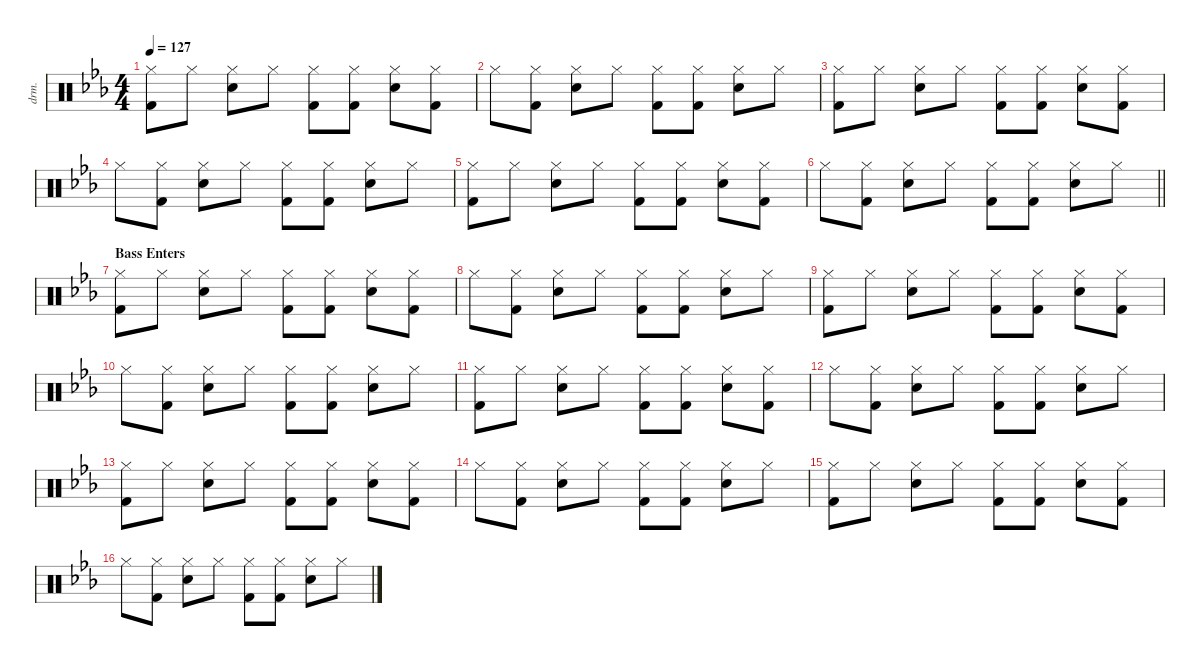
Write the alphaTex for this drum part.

\defaultSystemsLayout 4
\hideDynamics
\bracketExtendMode nobrackets
\otherSystemsTrackNameOrientation horizontal
\track ("Drums" "drm.") {defaultSystemsLayout 4 instrument percussion}
\staff {score}
\articulation defaults
\ts (4 4)
\tempo 127
\clef neutral
\ks eb
("Hi-Hat (closed)"{acc forcenatural} "Kick (hit) 2"{acc forcenatural}).8{dy f beam Down} "Hi-Hat (closed)"{acc forcenatural}.8{beam Down} ("Hi-Hat (closed)"{acc forcenatural} "Snare (hit) 2"{acc forcenatural}).8{beam Down} "Hi-Hat (closed)"{acc forcenatural}.8{beam Down} ("Hi-Hat (closed)"{acc forcenatural} "Kick (hit) 2"{acc forcenatural}).8{beam Down} ("Hi-Hat (closed)"{acc forcenatural} "Kick (hit) 2"{acc forcenatural}).8{beam Down} ("Hi-Hat (closed)"{acc forcenatural} "Snare (hit) 2"{acc forcenatural}).8{beam Down} ("Hi-Hat (closed)"{acc forcenatural} "Kick (hit) 2"{acc forcenatural}).8{beam Down} |
"Hi-Hat (closed)"{acc forcenatural}.8{beam Down} ("Hi-Hat (closed)"{acc forcenatural} "Kick (hit) 2"{acc forcenatural}).8{beam Down} ("Hi-Hat (closed)"{acc forcenatural} "Snare (hit) 2"{acc forcenatural}).8{beam Down} "Hi-Hat (closed)"{acc forcenatural}.8{beam Down} ("Hi-Hat (closed)"{acc forcenatural} "Kick (hit) 2"{acc forcenatural}).8{beam Down} ("Hi-Hat (closed)"{acc forcenatural} "Kick (hit) 2"{acc forcenatural}).8{beam Down} ("Hi-Hat (closed)"{acc forcenatural} "Snare (hit) 2"{acc forcenatural}).8{beam Down} "Hi-Hat (closed)"{acc forcenatural}.8{beam Down} |
("Hi-Hat (closed)"{acc forcenatural} "Kick (hit) 2"{acc forcenatural}).8{beam Down} "Hi-Hat (closed)"{acc forcenatural}.8{beam Down} ("Hi-Hat (closed)"{acc forcenatural} "Snare (hit) 2"{acc forcenatural}).8{beam Down} "Hi-Hat (closed)"{acc forcenatural}.8{beam Down} ("Hi-Hat (closed)"{acc forcenatural} "Kick (hit) 2"{acc forcenatural}).8{beam Down} ("Hi-Hat (closed)"{acc forcenatural} "Kick (hit) 2"{acc forcenatural}).8{beam Down} ("Hi-Hat (closed)"{acc forcenatural} "Snare (hit) 2"{acc forcenatural}).8{beam Down} ("Hi-Hat (closed)"{acc forcenatural} "Kick (hit) 2"{acc forcenatural}).8{beam Down} |
"Hi-Hat (closed)"{acc forcenatural}.8{beam Down} ("Hi-Hat (closed)"{acc forcenatural} "Kick (hit) 2"{acc forcenatural}).8{beam Down} ("Hi-Hat (closed)"{acc forcenatural} "Snare (hit) 2"{acc forcenatural}).8{beam Down} "Hi-Hat (closed)"{acc forcenatural}.8{beam Down} ("Hi-Hat (closed)"{acc forcenatural} "Kick (hit) 2"{acc forcenatural}).8{beam Down} ("Hi-Hat (closed)"{acc forcenatural} "Kick (hit) 2"{acc forcenatural}).8{beam Down} ("Hi-Hat (closed)"{acc forcenatural} "Snare (hit) 2"{acc forcenatural}).8{beam Down} "Hi-Hat (closed)"{acc forcenatural}.8{beam Down} |
("Hi-Hat (closed)"{acc forcenatural} "Kick (hit) 2"{acc forcenatural}).8{beam Down} "Hi-Hat (closed)"{acc forcenatural}.8{beam Down} ("Hi-Hat (closed)"{acc forcenatural} "Snare (hit) 2"{acc forcenatural}).8{beam Down} "Hi-Hat (closed)"{acc forcenatural}.8{beam Down} ("Hi-Hat (closed)"{acc forcenatural} "Kick (hit) 2"{acc forcenatural}).8{beam Down} ("Hi-Hat (closed)"{acc forcenatural} "Kick (hit) 2"{acc forcenatural}).8{beam Down} ("Hi-Hat (closed)"{acc forcenatural} "Snare (hit) 2"{acc forcenatural}).8{beam Down} ("Hi-Hat (closed)"{acc forcenatural} "Kick (hit) 2"{acc forcenatural}).8{beam Down} |
\barLineRight lightlight "Hi-Hat (closed)"{acc forcenatural}.8{beam Down}
("Hi-Hat (closed)"{acc forcenatural} "Kick (hit) 2"{acc forcenatural}).8{beam Down} ("Hi-Hat (closed)"{acc forcenatural} "Snare (hit) 2"{acc forcenatural}).8{beam Down} "Hi-Hat (closed)"{acc forcenatural}.8{beam Down} ("Hi-Hat (closed)"{acc forcenatural} "Kick (hit) 2"{acc forcenatural}).8{beam Down} ("Hi-Hat (closed)"{acc forcenatural} "Kick (hit) 2"{acc forcenatural}).8{beam Down} ("Hi-Hat (closed)"{acc forcenatural} "Snare (hit) 2"{acc forcenatural}).8{beam Down} "Hi-Hat (closed)"{acc forcenatural}.8{beam Down} |
\section ("" "Bass Enters")
("Hi-Hat (closed)"{acc forcenatural} "Kick (hit) 2"{acc forcenatural}).8{beam Down} "Hi-Hat (closed)"{acc forcenatural}.8{beam Down} ("Hi-Hat (closed)"{acc forcenatural} "Snare (hit) 2"{acc forcenatural}).8{beam Down} "Hi-Hat (closed)"{acc forcenatural}.8{beam Down} ("Hi-Hat (closed)"{acc forcenatural} "Kick (hit) 2"{acc forcenatural}).8{beam Down} ("Hi-Hat (closed)"{acc forcenatural} "Kick (hit) 2"{acc forcenatural}).8{beam Down} ("Hi-Hat (closed)"{acc forcenatural} "Snare (hit) 2"{acc forcenatural}).8{beam Down} ("Hi-Hat (closed)"{acc forcenatural} "Kick (hit) 2"{acc forcenatural}).8{beam Down} |
"Hi-Hat (closed)"{acc forcenatural}.8{beam Down} ("Hi-Hat (closed)"{acc forcenatural} "Kick (hit) 2"{acc forcenatural}).8{beam Down} ("Hi-Hat (closed)"{acc forcenatural} "Snare (hit) 2"{acc forcenatural}).8{beam Down} "Hi-Hat (closed)"{acc forcenatural}.8{beam Down} ("Hi-Hat (closed)"{acc forcenatural} "Kick (hit) 2"{acc forcenatural}).8{beam Down} ("Hi-Hat (closed)"{acc forcenatural} "Kick (hit) 2"{acc forcenatural}).8{beam Down} ("Hi-Hat (closed)"{acc forcenatural} "Snare (hit) 2"{acc forcenatural}).8{beam Down} "Hi-Hat (closed)"{acc forcenatural}.8{beam Down} |
("Hi-Hat (closed)"{acc forcenatural} "Kick (hit) 2"{acc forcenatural}).8{beam Down} "Hi-Hat (closed)"{acc forcenatural}.8{beam Down} ("Hi-Hat (closed)"{acc forcenatural} "Snare (hit) 2"{acc forcenatural}).8{beam Down} "Hi-Hat (closed)"{acc forcenatural}.8{beam Down} ("Hi-Hat (closed)"{acc forcenatural} "Kick (hit) 2"{acc forcenatural}).8{beam Down} ("Hi-Hat (closed)"{acc forcenatural} "Kick (hit) 2"{acc forcenatural}).8{beam Down} ("Hi-Hat (closed)"{acc forcenatural} "Snare (hit) 2"{acc forcenatural}).8{beam Down} ("Hi-Hat (closed)"{acc forcenatural} "Kick (hit) 2"{acc forcenatural}).8{beam Down} |
"Hi-Hat (closed)"{acc forcenatural}.8{beam Down} ("Hi-Hat (closed)"{acc forcenatural} "Kick (hit) 2"{acc forcenatural}).8{beam Down} ("Hi-Hat (closed)"{acc forcenatural} "Snare (hit) 2"{acc forcenatural}).8{beam Down} "Hi-Hat (closed)"{acc forcenatural}.8{beam Down} ("Hi-Hat (closed)"{acc forcenatural} "Kick (hit) 2"{acc forcenatural}).8{beam Down} ("Hi-Hat (closed)"{acc forcenatural} "Kick (hit) 2"{acc forcenatural}).8{beam Down} ("Hi-Hat (closed)"{acc forcenatural} "Snare (hit) 2"{acc forcenatural}).8{beam Down} "Hi-Hat (closed)"{acc forcenatural}.8{beam Down} |
("Hi-Hat (closed)"{acc forcenatural} "Kick (hit) 2"{acc forcenatural}).8{beam Down} "Hi-Hat (closed)"{acc forcenatural}.8{beam Down} ("Hi-Hat (closed)"{acc forcenatural} "Snare (hit) 2"{acc forcenatural}).8{beam Down} "Hi-Hat (closed)"{acc forcenatural}.8{beam Down} ("Hi-Hat (closed)"{acc forcenatural} "Kick (hit) 2"{acc forcenatural}).8{beam Down} ("Hi-Hat (closed)"{acc forcenatural} "Kick (hit) 2"{acc forcenatural}).8{beam Down} ("Hi-Hat (closed)"{acc forcenatural} "Snare (hit) 2"{acc forcenatural}).8{beam Down} ("Hi-Hat (closed)"{acc forcenatural} "Kick (hit) 2"{acc forcenatural}).8{beam Down} |
"Hi-Hat (closed)"{acc forcenatural}.8{beam Down} ("Hi-Hat (closed)"{acc forcenatural} "Kick (hit) 2"{acc forcenatural}).8{beam Down} ("Hi-Hat (closed)"{acc forcenatural} "Snare (hit) 2"{acc forcenatural}).8{beam Down} "Hi-Hat (closed)"{acc forcenatural}.8{beam Down} ("Hi-Hat (closed)"{acc forcenatural} "Kick (hit) 2"{acc forcenatural}).8{beam Down} ("Hi-Hat (closed)"{acc forcenatural} "Kick (hit) 2"{acc forcenatural}).8{beam Down} ("Hi-Hat (closed)"{acc forcenatural} "Snare (hit) 2"{acc forcenatural}).8{beam Down} "Hi-Hat (closed)"{acc forcenatural}.8{beam Down} |
("Hi-Hat (closed)"{acc forcenatural} "Kick (hit) 2"{acc forcenatural}).8{beam Down} "Hi-Hat (closed)"{acc forcenatural}.8{beam Down} ("Hi-Hat (closed)"{acc forcenatural} "Snare (hit) 2"{acc forcenatural}).8{beam Down} "Hi-Hat (closed)"{acc forcenatural}.8{beam Down} ("Hi-Hat (closed)"{acc forcenatural} "Kick (hit) 2"{acc forcenatural}).8{beam Down} ("Hi-Hat (closed)"{acc forcenatural} "Kick (hit) 2"{acc forcenatural}).8{beam Down} ("Hi-Hat (closed)"{acc forcenatural} "Snare (hit) 2"{acc forcenatural}).8{beam Down} ("Hi-Hat (closed)"{acc forcenatural} "Kick (hit) 2"{acc forcenatural}).8{beam Down} |
"Hi-Hat (closed)"{acc forcenatural}.8{beam Down} ("Hi-Hat (closed)"{acc forcenatural} "Kick (hit) 2"{acc forcenatural}).8{beam Down} ("Hi-Hat (closed)"{acc forcenatural} "Snare (hit) 2"{acc forcenatural}).8{beam Down} "Hi-Hat (closed)"{acc forcenatural}.8{beam Down} ("Hi-Hat (closed)"{acc forcenatural} "Kick (hit) 2"{acc forcenatural}).8{beam Down} ("Hi-Hat (closed)"{acc forcenatural} "Kick (hit) 2"{acc forcenatural}).8{beam Down} ("Hi-Hat (closed)"{acc forcenatural} "Snare (hit) 2"{acc forcenatural}).8{beam Down} "Hi-Hat (closed)"{acc forcenatural}.8{beam Down} |
("Hi-Hat (closed)"{acc forcenatural} "Kick (hit) 2"{acc forcenatural}).8{beam Down} "Hi-Hat (closed)"{acc forcenatural}.8{beam Down} ("Hi-Hat (closed)"{acc forcenatural} "Snare (hit) 2"{acc forcenatural}).8{beam Down} "Hi-Hat (closed)"{acc forcenatural}.8{beam Down} ("Hi-Hat (closed)"{acc forcenatural} "Kick (hit) 2"{acc forcenatural}).8{beam Down} ("Hi-Hat (closed)"{acc forcenatural} "Kick (hit) 2"{acc forcenatural}).8{beam Down} ("Hi-Hat (closed)"{acc forcenatural} "Snare (hit) 2"{acc forcenatural}).8{beam Down} ("Hi-Hat (closed)"{acc forcenatural} "Kick (hit) 2"{acc forcenatural}).8{beam Down} |
"Hi-Hat (closed)"{acc forcenatural}.8{beam Down} ("Hi-Hat (closed)"{acc forcenatural} "Kick (hit) 2"{acc forcenatural}).8{beam Down} ("Hi-Hat (closed)"{acc forcenatural} "Snare (hit) 2"{acc forcenatural}).8{beam Down} "Hi-Hat (closed)"{acc forcenatural}.8{beam Down} ("Hi-Hat (closed)"{acc forcenatural} "Kick (hit) 2"{acc forcenatural}).8{beam Down} ("Hi-Hat (closed)"{acc forcenatural} "Kick (hit) 2"{acc forcenatural}).8{beam Down} ("Hi-Hat (closed)"{acc forcenatural} "Snare (hit) 2"{acc forcenatural}).8{beam Down} "Hi-Hat (closed)"{acc forcenatural}.8{beam Down}
